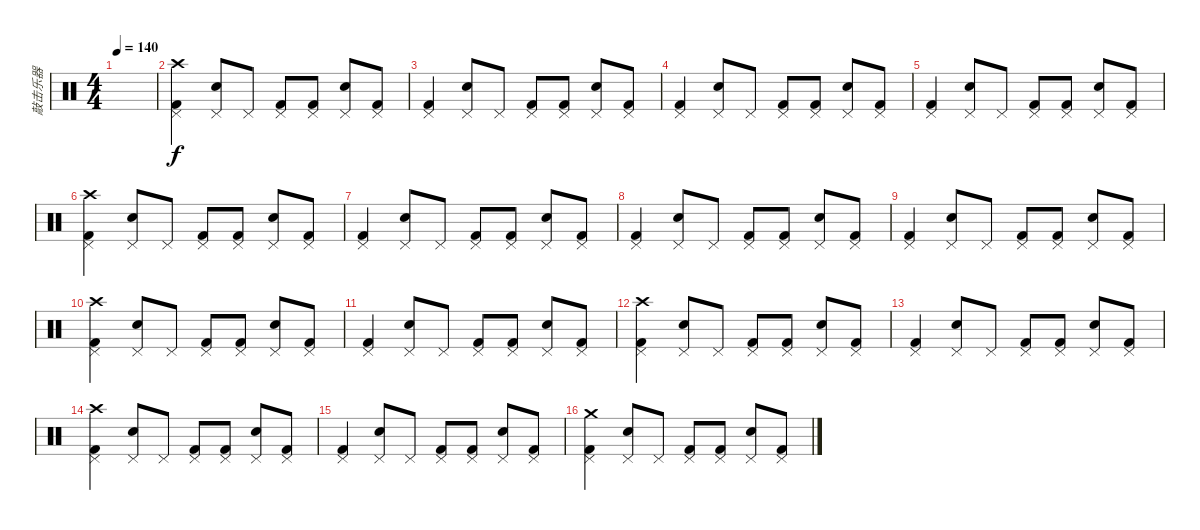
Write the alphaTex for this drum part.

\track ("敲击乐器" "敲击乐器") {instrument percussion}
\staff {score}
\articulation defaults
\ts (4 4)
\tempo 140
\clef neutral
\ks c
|
("Kick (hit) 2" "Pedal Hi-Hat (hit)" "Crash high (hit)").4 ("Snare (hit) 2" "Pedal Hi-Hat (hit)").8 "Pedal Hi-Hat (hit)".8 ("Kick (hit) 2" "Pedal Hi-Hat (hit)").8 ("Kick (hit) 2" "Pedal Hi-Hat (hit)").8 ("Snare (hit) 2" "Pedal Hi-Hat (hit)").8 ("Kick (hit) 2" "Pedal Hi-Hat (hit)").8 |
("Kick (hit) 2" "Pedal Hi-Hat (hit)").4 ("Snare (hit) 2" "Pedal Hi-Hat (hit)").8 "Pedal Hi-Hat (hit)".8 ("Kick (hit) 2" "Pedal Hi-Hat (hit)").8 ("Kick (hit) 2" "Pedal Hi-Hat (hit)").8 ("Snare (hit) 2" "Pedal Hi-Hat (hit)").8 ("Kick (hit) 2" "Pedal Hi-Hat (hit)").8 |
("Kick (hit) 2" "Pedal Hi-Hat (hit)").4 ("Snare (hit) 2" "Pedal Hi-Hat (hit)").8 "Pedal Hi-Hat (hit)".8 ("Kick (hit) 2" "Pedal Hi-Hat (hit)").8 ("Kick (hit) 2" "Pedal Hi-Hat (hit)").8 ("Snare (hit) 2" "Pedal Hi-Hat (hit)").8 ("Kick (hit) 2" "Pedal Hi-Hat (hit)").8 |
("Kick (hit) 2" "Pedal Hi-Hat (hit)").4 ("Snare (hit) 2" "Pedal Hi-Hat (hit)").8 "Pedal Hi-Hat (hit)".8 ("Kick (hit) 2" "Pedal Hi-Hat (hit)").8 ("Kick (hit) 2" "Pedal Hi-Hat (hit)").8 ("Snare (hit) 2" "Pedal Hi-Hat (hit)").8 ("Kick (hit) 2" "Pedal Hi-Hat (hit)").8 |
("Kick (hit) 2" "Pedal Hi-Hat (hit)" "Crash high (hit)").4 ("Snare (hit) 2" "Pedal Hi-Hat (hit)").8 "Pedal Hi-Hat (hit)".8 ("Kick (hit) 2" "Pedal Hi-Hat (hit)").8 ("Kick (hit) 2" "Pedal Hi-Hat (hit)").8 ("Snare (hit) 2" "Pedal Hi-Hat (hit)").8 ("Kick (hit) 2" "Pedal Hi-Hat (hit)").8 |
("Kick (hit) 2" "Pedal Hi-Hat (hit)").4 ("Snare (hit) 2" "Pedal Hi-Hat (hit)").8 "Pedal Hi-Hat (hit)".8 ("Kick (hit) 2" "Pedal Hi-Hat (hit)").8 ("Kick (hit) 2" "Pedal Hi-Hat (hit)").8 ("Snare (hit) 2" "Pedal Hi-Hat (hit)").8 ("Kick (hit) 2" "Pedal Hi-Hat (hit)").8 |
("Kick (hit) 2" "Pedal Hi-Hat (hit)").4 ("Snare (hit) 2" "Pedal Hi-Hat (hit)").8 "Pedal Hi-Hat (hit)".8 ("Kick (hit) 2" "Pedal Hi-Hat (hit)").8 ("Kick (hit) 2" "Pedal Hi-Hat (hit)").8 ("Snare (hit) 2" "Pedal Hi-Hat (hit)").8 ("Kick (hit) 2" "Pedal Hi-Hat (hit)").8 |
("Kick (hit) 2" "Pedal Hi-Hat (hit)").4 ("Snare (hit) 2" "Pedal Hi-Hat (hit)").8 "Pedal Hi-Hat (hit)".8 ("Kick (hit) 2" "Pedal Hi-Hat (hit)").8 ("Kick (hit) 2" "Pedal Hi-Hat (hit)").8 ("Snare (hit) 2" "Pedal Hi-Hat (hit)").8 ("Kick (hit) 2" "Pedal Hi-Hat (hit)").8 |
("Kick (hit) 2" "Pedal Hi-Hat (hit)" "Crash high (hit)").4 ("Snare (hit) 2" "Pedal Hi-Hat (hit)").8 "Pedal Hi-Hat (hit)".8 ("Kick (hit) 2" "Pedal Hi-Hat (hit)").8 ("Kick (hit) 2" "Pedal Hi-Hat (hit)").8 ("Snare (hit) 2" "Pedal Hi-Hat (hit)").8 ("Kick (hit) 2" "Pedal Hi-Hat (hit)").8 |
("Kick (hit) 2" "Pedal Hi-Hat (hit)").4 ("Snare (hit) 2" "Pedal Hi-Hat (hit)").8 "Pedal Hi-Hat (hit)".8 ("Kick (hit) 2" "Pedal Hi-Hat (hit)").8 ("Kick (hit) 2" "Pedal Hi-Hat (hit)").8 ("Snare (hit) 2" "Pedal Hi-Hat (hit)").8 ("Kick (hit) 2" "Pedal Hi-Hat (hit)").8 |
("Kick (hit) 2" "Pedal Hi-Hat (hit)" "Crash high (hit)").4 ("Snare (hit) 2" "Pedal Hi-Hat (hit)").8 "Pedal Hi-Hat (hit)".8 ("Kick (hit) 2" "Pedal Hi-Hat (hit)").8 ("Kick (hit) 2" "Pedal Hi-Hat (hit)").8 ("Snare (hit) 2" "Pedal Hi-Hat (hit)").8 ("Kick (hit) 2" "Pedal Hi-Hat (hit)").8 |
("Kick (hit) 2" "Pedal Hi-Hat (hit)").4 ("Snare (hit) 2" "Pedal Hi-Hat (hit)").8 "Pedal Hi-Hat (hit)".8 ("Kick (hit) 2" "Pedal Hi-Hat (hit)").8 ("Kick (hit) 2" "Pedal Hi-Hat (hit)").8 ("Snare (hit) 2" "Pedal Hi-Hat (hit)").8 ("Kick (hit) 2" "Pedal Hi-Hat (hit)").8 |
("Kick (hit) 2" "Pedal Hi-Hat (hit)" "Crash high (hit)").4 ("Snare (hit) 2" "Pedal Hi-Hat (hit)").8 "Pedal Hi-Hat (hit)".8 ("Kick (hit) 2" "Pedal Hi-Hat (hit)").8 ("Kick (hit) 2" "Pedal Hi-Hat (hit)").8 ("Snare (hit) 2" "Pedal Hi-Hat (hit)").8 ("Kick (hit) 2" "Pedal Hi-Hat (hit)").8 |
("Kick (hit) 2" "Pedal Hi-Hat (hit)").4 ("Snare (hit) 2" "Pedal Hi-Hat (hit)").8 "Pedal Hi-Hat (hit)".8 ("Kick (hit) 2" "Pedal Hi-Hat (hit)").8 ("Kick (hit) 2" "Pedal Hi-Hat (hit)").8 ("Snare (hit) 2" "Pedal Hi-Hat (hit)").8 ("Kick (hit) 2" "Pedal Hi-Hat (hit)").8 |
("Kick (hit) 2" "Pedal Hi-Hat (hit)" "Crash medium (hit)").4 ("Snare (hit) 2" "Pedal Hi-Hat (hit)").8 "Pedal Hi-Hat (hit)".8 ("Kick (hit) 2" "Pedal Hi-Hat (hit)").8 ("Kick (hit) 2" "Pedal Hi-Hat (hit)").8 ("Snare (hit) 2" "Pedal Hi-Hat (hit)").8 ("Kick (hit) 2" "Pedal Hi-Hat (hit)").8
